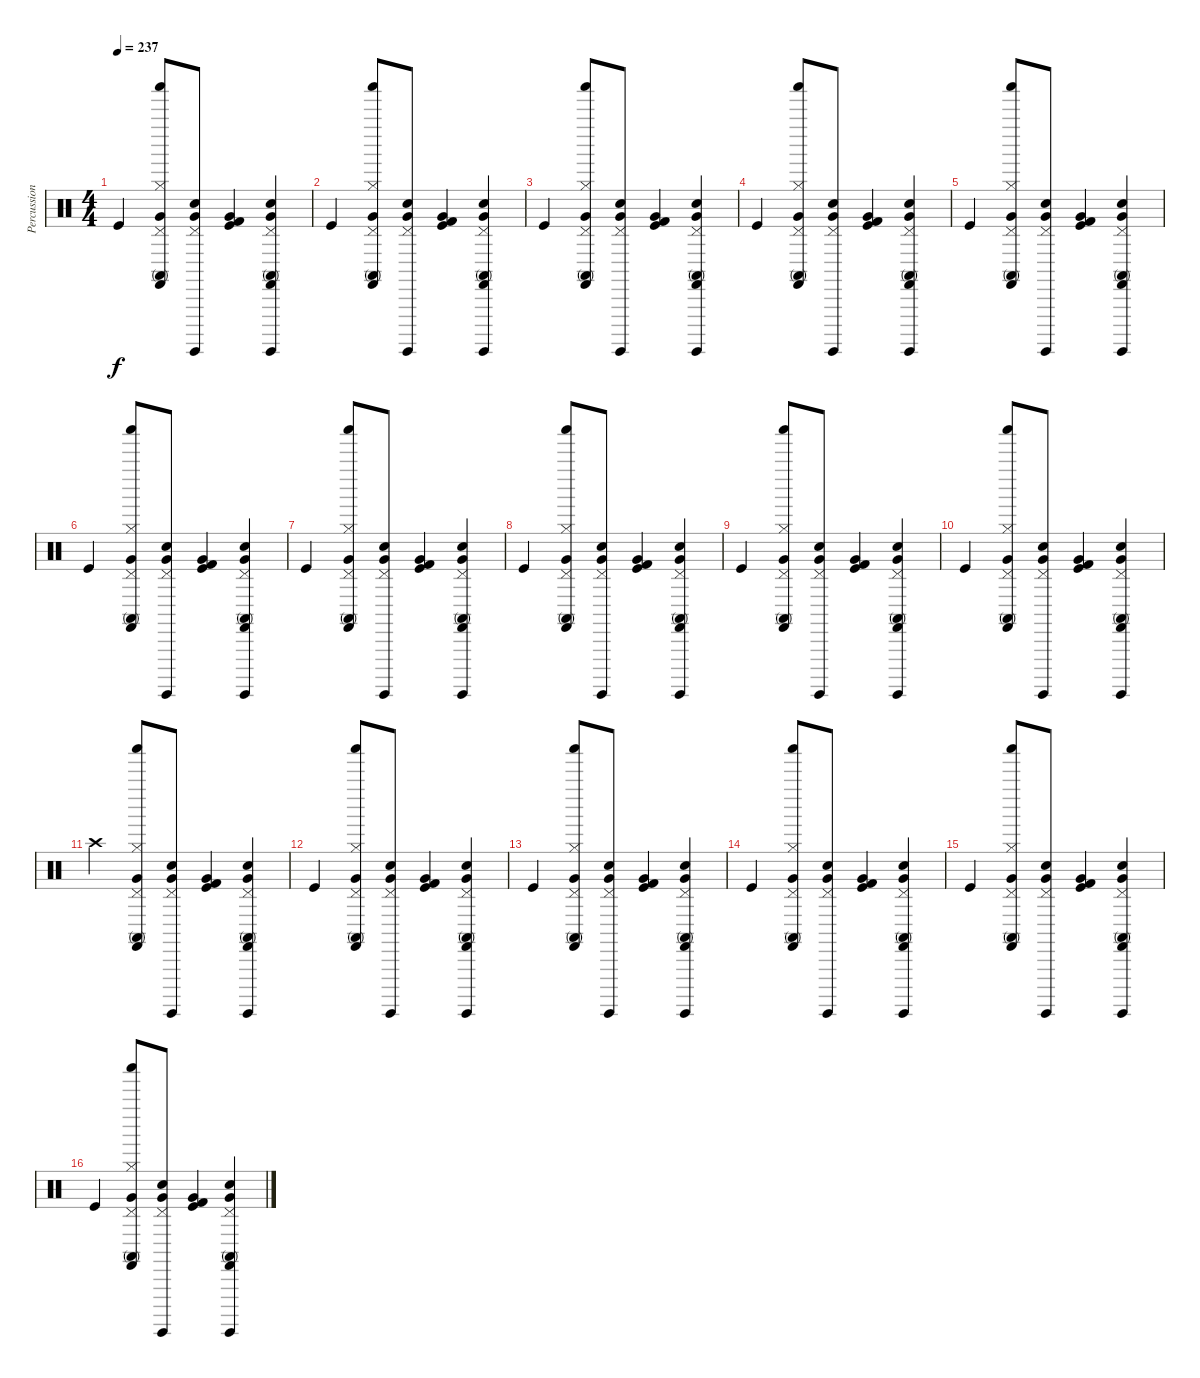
\track ("Percussions" "Percussion") {instrument percussion}
\staff {score}
\articulation defaults
\ts (4 4)
\tempo 237
\clef neutral
\ks c "Kick (hit)".4{dy f}
("Hi-Hat (closed)" "Shaker (hit)" "Pedal Hi-Hat (hit)" "Very Low Tom (hit)" "Conga high (mute)" "Castanets (hit)").8 ("Hand Clap (hit)" "Surdo (hit)" "Pedal Hi-Hat (hit)" "Very Low Tom (hit)").8 ("Kick (hit)" "Kick (hit) 2" "Very Low Tom (hit)").4 ("Hand Clap (hit)" "Surdo (hit)" "Pedal Hi-Hat (hit)" "Very Low Tom (hit)" "Conga high (mute)" "Castanets (hit)").4 |
"Kick (hit)".4 ("Hi-Hat (closed)" "Shaker (hit)" "Pedal Hi-Hat (hit)" "Very Low Tom (hit)" "Conga high (mute)" "Castanets (hit)").8 ("Hand Clap (hit)" "Surdo (hit)" "Pedal Hi-Hat (hit)" "Very Low Tom (hit)").8 ("Kick (hit)" "Kick (hit) 2" "Very Low Tom (hit)").4 ("Hand Clap (hit)" "Surdo (hit)" "Pedal Hi-Hat (hit)" "Very Low Tom (hit)" "Conga high (mute)" "Castanets (hit)").4 |
"Kick (hit)".4 ("Hi-Hat (closed)" "Shaker (hit)" "Pedal Hi-Hat (hit)" "Very Low Tom (hit)" "Conga high (mute)" "Castanets (hit)").8 ("Hand Clap (hit)" "Surdo (hit)" "Pedal Hi-Hat (hit)" "Very Low Tom (hit)").8 ("Kick (hit)" "Kick (hit) 2" "Very Low Tom (hit)").4 ("Hand Clap (hit)" "Surdo (hit)" "Pedal Hi-Hat (hit)" "Very Low Tom (hit)" "Conga high (mute)" "Castanets (hit)").4 |
"Kick (hit)".4 ("Hi-Hat (closed)" "Shaker (hit)" "Pedal Hi-Hat (hit)" "Very Low Tom (hit)" "Conga high (mute)" "Castanets (hit)").8 ("Hand Clap (hit)" "Surdo (hit)" "Pedal Hi-Hat (hit)" "Very Low Tom (hit)").8 ("Kick (hit)" "Kick (hit) 2" "Very Low Tom (hit)").4 ("Hand Clap (hit)" "Surdo (hit)" "Pedal Hi-Hat (hit)" "Very Low Tom (hit)" "Conga high (mute)" "Castanets (hit)").4 |
"Kick (hit)".4 ("Hi-Hat (closed)" "Shaker (hit)" "Pedal Hi-Hat (hit)" "Very Low Tom (hit)" "Conga high (mute)" "Castanets (hit)").8 ("Hand Clap (hit)" "Surdo (hit)" "Pedal Hi-Hat (hit)" "Very Low Tom (hit)").8 ("Kick (hit)" "Kick (hit) 2" "Very Low Tom (hit)").4 ("Hand Clap (hit)" "Surdo (hit)" "Pedal Hi-Hat (hit)" "Very Low Tom (hit)" "Conga high (mute)" "Castanets (hit)").4 |
"Kick (hit)".4 ("Hi-Hat (closed)" "Shaker (hit)" "Pedal Hi-Hat (hit)" "Very Low Tom (hit)" "Conga high (mute)" "Castanets (hit)").8 ("Hand Clap (hit)" "Surdo (hit)" "Pedal Hi-Hat (hit)" "Very Low Tom (hit)").8 ("Kick (hit)" "Kick (hit) 2" "Very Low Tom (hit)").4 ("Hand Clap (hit)" "Surdo (hit)" "Pedal Hi-Hat (hit)" "Very Low Tom (hit)" "Conga high (mute)" "Castanets (hit)").4 |
"Kick (hit)".4 ("Hi-Hat (closed)" "Shaker (hit)" "Pedal Hi-Hat (hit)" "Very Low Tom (hit)" "Conga high (mute)" "Castanets (hit)").8 ("Hand Clap (hit)" "Surdo (hit)" "Pedal Hi-Hat (hit)" "Very Low Tom (hit)").8 ("Kick (hit)" "Kick (hit) 2" "Very Low Tom (hit)").4 ("Hand Clap (hit)" "Surdo (hit)" "Pedal Hi-Hat (hit)" "Very Low Tom (hit)" "Conga high (mute)" "Castanets (hit)").4 |
"Kick (hit)".4 ("Hi-Hat (closed)" "Shaker (hit)" "Pedal Hi-Hat (hit)" "Very Low Tom (hit)" "Conga high (mute)" "Castanets (hit)").8 ("Hand Clap (hit)" "Surdo (hit)" "Pedal Hi-Hat (hit)" "Very Low Tom (hit)").8 ("Kick (hit)" "Kick (hit) 2" "Very Low Tom (hit)").4 ("Hand Clap (hit)" "Surdo (hit)" "Pedal Hi-Hat (hit)" "Very Low Tom (hit)" "Conga high (mute)" "Castanets (hit)").4 |
"Kick (hit)".4 ("Hi-Hat (closed)" "Shaker (hit)" "Pedal Hi-Hat (hit)" "Very Low Tom (hit)" "Conga high (mute)" "Castanets (hit)").8 ("Hand Clap (hit)" "Surdo (hit)" "Pedal Hi-Hat (hit)" "Very Low Tom (hit)").8 ("Kick (hit)" "Kick (hit) 2" "Very Low Tom (hit)").4 ("Hand Clap (hit)" "Surdo (hit)" "Pedal Hi-Hat (hit)" "Very Low Tom (hit)" "Conga high (mute)" "Castanets (hit)").4 |
"Kick (hit)".4 ("Hi-Hat (closed)" "Shaker (hit)" "Pedal Hi-Hat (hit)" "Very Low Tom (hit)" "Conga high (mute)" "Castanets (hit)").8 ("Hand Clap (hit)" "Surdo (hit)" "Pedal Hi-Hat (hit)" "Very Low Tom (hit)").8 ("Kick (hit)" "Kick (hit) 2" "Very Low Tom (hit)").4 ("Hand Clap (hit)" "Surdo (hit)" "Pedal Hi-Hat (hit)" "Very Low Tom (hit)" "Conga high (mute)" "Castanets (hit)").4 |
"Crash high (hit)".4 ("Hi-Hat (closed)" "Shaker (hit)" "Pedal Hi-Hat (hit)" "Very Low Tom (hit)" "Conga high (mute)" "Castanets (hit)").8 ("Hand Clap (hit)" "Surdo (hit)" "Pedal Hi-Hat (hit)" "Very Low Tom (hit)").8 ("Kick (hit)" "Kick (hit) 2" "Very Low Tom (hit)").4 ("Hand Clap (hit)" "Surdo (hit)" "Pedal Hi-Hat (hit)" "Very Low Tom (hit)" "Conga high (mute)" "Castanets (hit)").4 |
"Kick (hit)".4 ("Hi-Hat (closed)" "Shaker (hit)" "Pedal Hi-Hat (hit)" "Very Low Tom (hit)" "Conga high (mute)" "Castanets (hit)").8 ("Hand Clap (hit)" "Surdo (hit)" "Pedal Hi-Hat (hit)" "Very Low Tom (hit)").8 ("Kick (hit)" "Kick (hit) 2" "Very Low Tom (hit)").4 ("Hand Clap (hit)" "Surdo (hit)" "Pedal Hi-Hat (hit)" "Very Low Tom (hit)" "Conga high (mute)" "Castanets (hit)").4 |
"Kick (hit)".4 ("Hi-Hat (closed)" "Shaker (hit)" "Pedal Hi-Hat (hit)" "Very Low Tom (hit)" "Conga high (mute)" "Castanets (hit)").8 ("Hand Clap (hit)" "Surdo (hit)" "Pedal Hi-Hat (hit)" "Very Low Tom (hit)").8 ("Kick (hit)" "Kick (hit) 2" "Very Low Tom (hit)").4 ("Hand Clap (hit)" "Surdo (hit)" "Pedal Hi-Hat (hit)" "Very Low Tom (hit)" "Conga high (mute)" "Castanets (hit)").4 |
"Kick (hit)".4 ("Hi-Hat (closed)" "Shaker (hit)" "Pedal Hi-Hat (hit)" "Very Low Tom (hit)" "Conga high (mute)" "Castanets (hit)").8 ("Hand Clap (hit)" "Surdo (hit)" "Pedal Hi-Hat (hit)" "Very Low Tom (hit)").8 ("Kick (hit)" "Kick (hit) 2" "Very Low Tom (hit)").4 ("Hand Clap (hit)" "Surdo (hit)" "Pedal Hi-Hat (hit)" "Very Low Tom (hit)" "Conga high (mute)" "Castanets (hit)").4 |
"Kick (hit)".4 ("Hi-Hat (closed)" "Shaker (hit)" "Pedal Hi-Hat (hit)" "Very Low Tom (hit)" "Conga high (mute)" "Castanets (hit)").8 ("Hand Clap (hit)" "Surdo (hit)" "Pedal Hi-Hat (hit)" "Very Low Tom (hit)").8 ("Kick (hit)" "Kick (hit) 2" "Very Low Tom (hit)").4 ("Hand Clap (hit)" "Surdo (hit)" "Pedal Hi-Hat (hit)" "Very Low Tom (hit)" "Conga high (mute)" "Castanets (hit)").4 |
"Kick (hit)".4 ("Hi-Hat (closed)" "Shaker (hit)" "Pedal Hi-Hat (hit)" "Very Low Tom (hit)" "Conga high (mute)" "Castanets (hit)").8 ("Hand Clap (hit)" "Surdo (hit)" "Pedal Hi-Hat (hit)" "Very Low Tom (hit)").8 ("Kick (hit)" "Kick (hit) 2" "Very Low Tom (hit)").4 ("Hand Clap (hit)" "Surdo (hit)" "Pedal Hi-Hat (hit)" "Very Low Tom (hit)" "Conga high (mute)" "Castanets (hit)").4
